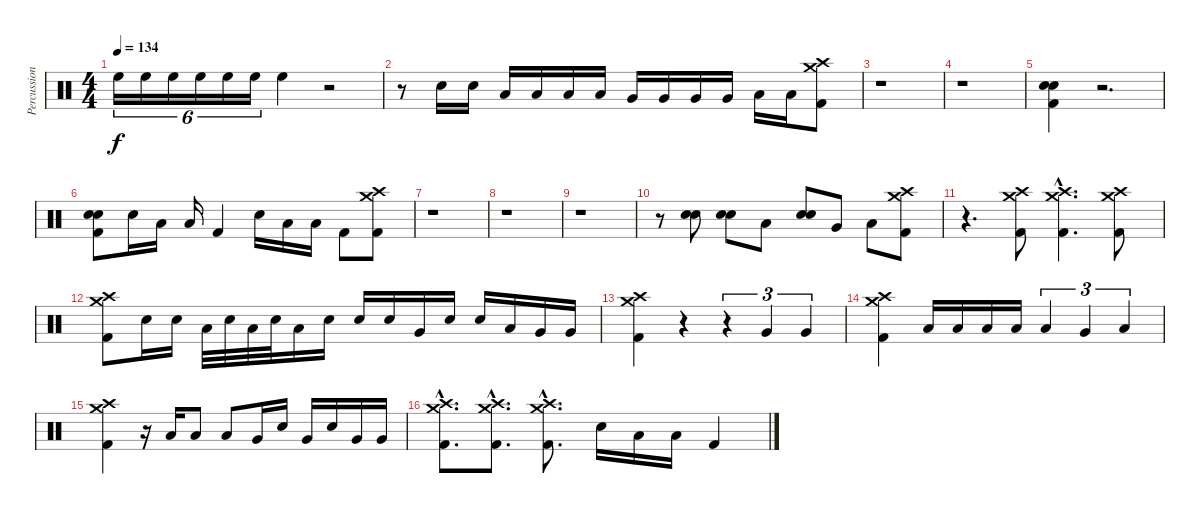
\track ("Percussion" "Percussion") {instrument percussion}
\staff {score}
\articulation defaults
\ts (4 4)
\tempo 134
\clef neutral
\ks c "High Floor Tom (hit)".16{tu (6 4) dy f} "High Floor Tom (hit)".16{tu (6 4)} "High Floor Tom (hit)".16{tu (6 4)} "High Floor Tom (hit)".16{tu (6 4)} "High Floor Tom (hit)".16{tu (6 4)} "High Floor Tom (hit)".16{tu (6 4)} "High Floor Tom (hit)".4
r.2 |
r.8 "Snare (hit) 2".16 "Snare (hit) 2".16 "Low Tom (hit)".16 "Low Tom (hit)".16 "Low Tom (hit)".16 "Low Tom (hit)".16 "Very Low Tom (hit)".16 "Very Low Tom (hit)".16 "Very Low Tom (hit)".16 "Very Low Tom (hit)".16 "Low Floor Tom (hit)".16 "Low Floor Tom (hit)".16 ("Crash high (hit)" "Crash medium (hit)" "Kick (hit) 2").8 |
r.1 |
r.1 |
("Snare (hit) 2" "Electric Snare (hit)" "Kick (hit) 2").4 r.2{d} |
("Snare (hit) 2" "Electric Snare (hit)" "Kick (hit) 2").8 "Snare (hit) 2".16 "Low Tom (hit)".16 "Low Floor Tom (hit)".16 "Kick (hit) 2".4 "Snare (hit) 2".16 "Low Tom (hit)".16 "Low Floor Tom (hit)".16 "Kick (hit) 2".8 ("Crash high (hit)" "Crash medium (hit)" "Kick (hit) 2").8 |
r.1 |
r.1 |
r.1 |
r.8 ("Snare (hit) 2" "Electric Snare (hit)").8 ("Snare (hit) 2" "Electric Snare (hit)").8 "Low Tom (hit)".8 ("Snare (hit) 2" "Electric Snare (hit)").8 "Very Low Tom (hit)".8 "Low Floor Tom (hit)".8 ("Crash high (hit)" "Crash medium (hit)" "Kick (hit) 2").8 |
r.4{d} ("Crash high (hit)" "Crash medium (hit)" "Kick (hit) 2").8 ("Crash high (hit)"{hac} "Crash medium (hit)"{hac} "Kick (hit) 2"{hac}).4{d} ("Crash high (hit)" "Crash medium (hit)" "Kick (hit) 2").8 |
("Crash high (hit)" "Crash medium (hit)" "Kick (hit) 2").8 "Snare (hit) 2".16 "Snare (hit) 2".16 "Low Tom (hit)".32 "Snare (hit) 2".32 "Low Tom (hit)".32 "Snare (hit) 2".32 "Low Tom (hit)".16 "Snare (hit) 2".16 "Snare (hit) 2".16 "Snare (hit) 2".16 "Very Low Tom (hit)".16 "Snare (hit) 2".16 "Snare (hit) 2".16 "Low Tom (hit)".16 "Very Low Tom (hit)".16 "Very Low Tom (hit)".16 |
("Crash high (hit)" "Crash medium (hit)" "Kick (hit) 2").4 r.4 r.4{tu (3 2)} "Very Low Tom (hit)".4{tu (3 2)} "Very Low Tom (hit)".4{tu (3 2)} |
("Crash high (hit)" "Crash medium (hit)" "Kick (hit) 2").4 "Low Tom (hit)".16 "Low Tom (hit)".16 "Low Tom (hit)".16 "Low Tom (hit)".16 "Low Tom (hit)".4{tu (3 2)} "Very Low Tom (hit)".4{tu (3 2)} "Low Floor Tom (hit)".4{tu (3 2)} |
("Crash high (hit)" "Crash medium (hit)" "Kick (hit) 2").4 r.16 "Low Floor Tom (hit)".16 "Low Floor Tom (hit)".8 "Low Floor Tom (hit)".8 "Very Low Tom (hit)".16 "Snare (hit) 2".16 "Very Low Tom (hit)".16 "Snare (hit) 2".16 "Very Low Tom (hit)".16 "Very Low Tom (hit)".16 |
("Crash high (hit)"{hac} "Crash medium (hit)"{hac} "Kick (hit) 2"{hac}).8{d} ("Crash high (hit)"{hac} "Crash medium (hit)"{hac} "Kick (hit) 2"{hac}).8{d} ("Crash high (hit)"{hac} "Crash medium (hit)"{hac} "Kick (hit) 2"{hac}).8{d} "Snare (hit) 2".16 "Low Tom (hit)".16 "Low Floor Tom (hit)".16 "Kick (hit) 2".4
